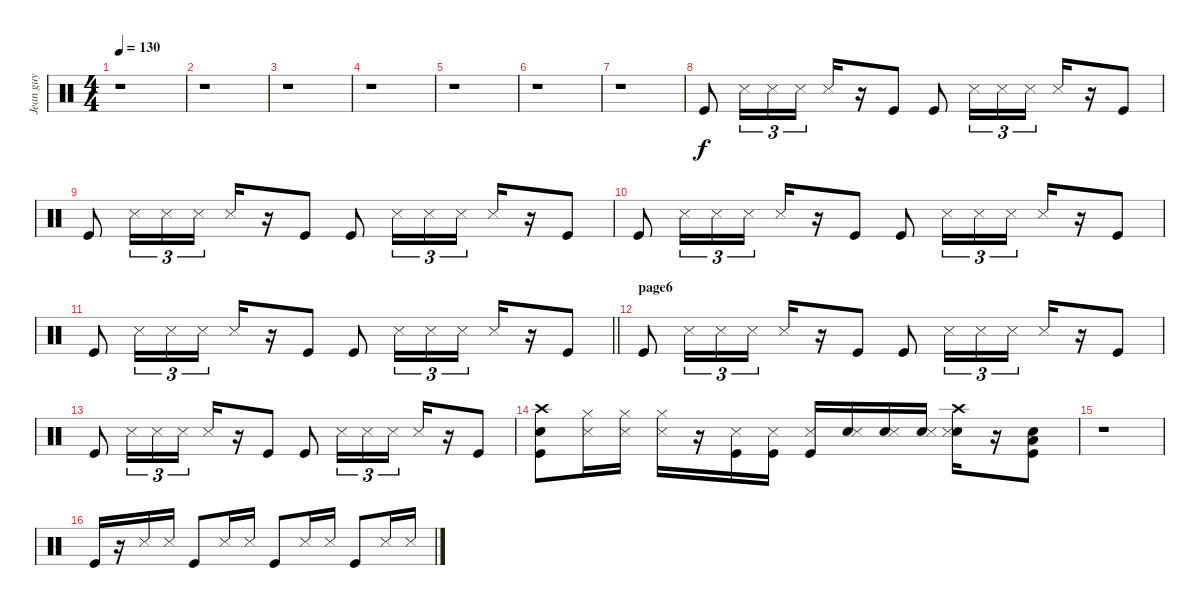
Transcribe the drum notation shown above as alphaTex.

\track ("Jean guy" "Jean guy") {instrument percussion}
\staff {score}
\articulation defaults
\ts (4 4)
\tempo 130
\clef neutral
\ks c
r.1{dy f} |
r.1 |
r.1 |
r.1 |
r.1 |
r.1 |
r.1 |
"Kick (hit)".8 "Snare (side stick) 3".16{tu (3 2)} "Snare (side stick) 3".16{tu (3 2)} "Snare (side stick) 3".16{tu (3 2)} "Snare (side stick) 3".16 r.16 "Kick (hit)".8 "Kick (hit)".8 "Snare (side stick) 3".16{tu (3 2)} "Snare (side stick) 3".16{tu (3 2)} "Snare (side stick) 3".16{tu (3 2)} "Snare (side stick) 3".16 r.16 "Kick (hit)".8 |
"Kick (hit)".8 "Snare (side stick) 3".16{tu (3 2)} "Snare (side stick) 3".16{tu (3 2)} "Snare (side stick) 3".16{tu (3 2)} "Snare (side stick) 3".16 r.16 "Kick (hit)".8 "Kick (hit)".8 "Snare (side stick) 3".16{tu (3 2)} "Snare (side stick) 3".16{tu (3 2)} "Snare (side stick) 3".16{tu (3 2)} "Snare (side stick) 3".16 r.16 "Kick (hit)".8 |
"Kick (hit)".8 "Snare (side stick) 3".16{tu (3 2)} "Snare (side stick) 3".16{tu (3 2)} "Snare (side stick) 3".16{tu (3 2)} "Snare (side stick) 3".16 r.16 "Kick (hit)".8 "Kick (hit)".8 "Snare (side stick) 3".16{tu (3 2)} "Snare (side stick) 3".16{tu (3 2)} "Snare (side stick) 3".16{tu (3 2)} "Snare (side stick) 3".16 r.16 "Kick (hit)".8 |
\barLineRight lightlight "Kick (hit)".8 "Snare (side stick) 3".16{tu (3 2)} "Snare (side stick) 3".16{tu (3 2)} "Snare (side stick) 3".16{tu (3 2)} "Snare (side stick) 3".16
r.16 "Kick (hit)".8 "Kick (hit)".8 "Snare (side stick) 3".16{tu (3 2)} "Snare (side stick) 3".16{tu (3 2)} "Snare (side stick) 3".16{tu (3 2)} "Snare (side stick) 3".16 r.16 "Kick (hit)".8 |
\section ("" "page6")
"Kick (hit)".8 "Snare (side stick) 3".16{tu (3 2)} "Snare (side stick) 3".16{tu (3 2)} "Snare (side stick) 3".16{tu (3 2)} "Snare (side stick) 3".16 r.16 "Kick (hit)".8 "Kick (hit)".8 "Snare (side stick) 3".16{tu (3 2)} "Snare (side stick) 3".16{tu (3 2)} "Snare (side stick) 3".16{tu (3 2)} "Snare (side stick) 3".16 r.16 "Kick (hit)".8 |
"Kick (hit)".8 "Snare (side stick) 3".16{tu (3 2)} "Snare (side stick) 3".16{tu (3 2)} "Snare (side stick) 3".16{tu (3 2)} "Snare (side stick) 3".16 r.16 "Kick (hit)".8 "Kick (hit)".8 "Snare (side stick) 3".16{tu (3 2)} "Snare (side stick) 3".16{tu (3 2)} "Snare (side stick) 3".16{tu (3 2)} "Snare (side stick) 3".16 r.16 "Kick (hit)".8 |
("Electric Snare (hit)" "Crash high (hit)" "Kick (hit)").8 ("Hi-Hat (closed)" "Snare (side stick) 3").16 ("Hi-Hat (closed)" "Snare (side stick) 3").16 ("Hi-Hat (closed)" "Snare (side stick) 3").16 r.16 ("Kick (hit)" "Snare (side stick) 3").16 ("Kick (hit)" "Snare (side stick) 3").16 ("Kick (hit)" "Snare (side stick) 3").16 ("Electric Snare (hit)" "Snare (side stick) 3").16 ("Electric Snare (hit)" "Snare (side stick) 3").16 ("Electric Snare (hit)" "Snare (side stick) 3").16 ("Crash high (hit)" "Electric Snare (hit)" "Snare (side stick) 3").16 r.16 ("Low Floor Tom (hit)" "Kick (hit)" "Electric Snare (hit)").8 |
r.1 |
"Kick (hit)".16 r.16 "Snare (side stick) 3".16 "Snare (side stick) 3".16 "Kick (hit)".8 "Snare (side stick) 3".16 "Snare (side stick) 3".16 "Kick (hit)".8 "Snare (side stick) 3".16 "Snare (side stick) 3".16 "Kick (hit)".8 "Snare (side stick) 3".16 "Snare (side stick) 3".16
